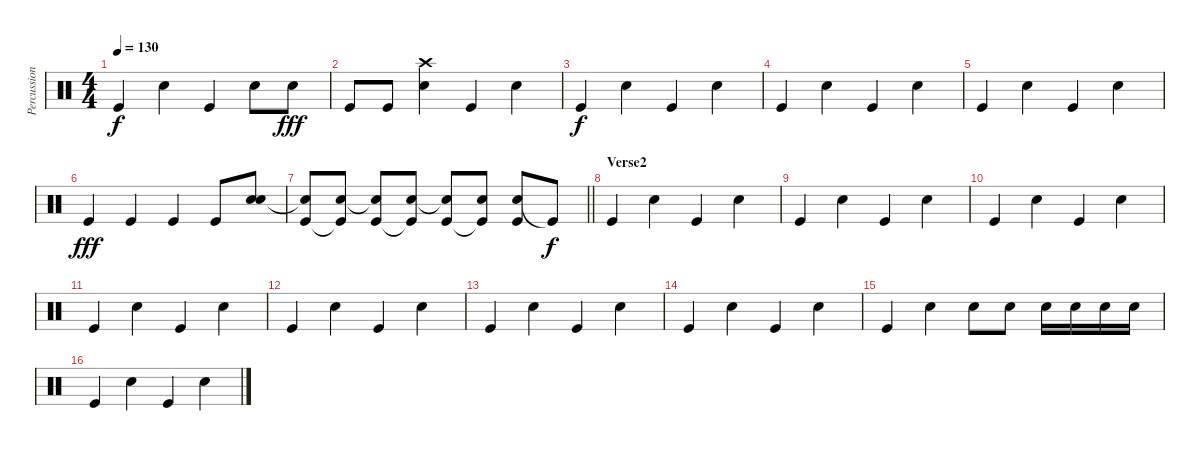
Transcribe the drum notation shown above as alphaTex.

\track ("Percussion" "Percussion") {instrument percussion}
\staff {score}
\articulation defaults
\ts (4 4)
\tempo 130
\clef neutral
\ks c "Kick (hit)".4{dy f} "Snare (hit) 2".4 "Kick (hit)".4 "Snare (hit) 2".8 "Snare (hit) 2".8{dy fff}
|
"Kick (hit)".8 "Kick (hit)".8 ("Crash high (hit)" "Snare (hit) 2").4 "Kick (hit)".4 "Snare (hit) 2".4 |
"Kick (hit)".4{dy f} "Snare (hit) 2".4 "Kick (hit)".4 "Snare (hit) 2".4 |
"Kick (hit)".4 "Snare (hit) 2".4 "Kick (hit)".4 "Snare (hit) 2".4 |
"Kick (hit)".4 "Snare (hit) 2".4 "Kick (hit)".4 "Snare (hit) 2".4 |
"Kick (hit)".4{dy fff} "Kick (hit)".4 "Kick (hit)".4 "Kick (hit)".8 ("Electric Snare (hit)" "Snare (hit)").8 |
\barLineRight lightlight
("Electric Snare (hit)"{t} "Kick (hit)").8 ("Electric Snare (hit)" "Kick (hit)"{t}).8 ("Electric Snare (hit)"{t} "Kick (hit)").8 ("Electric Snare (hit)" "Kick (hit)"{t}).8 ("Electric Snare (hit)"{t} "Kick (hit)").8 ("Electric Snare (hit)" "Kick (hit)"{t}).8 ("Electric Snare (hit)" "Kick (hit)").8 "Kick (hit)"{t}.8{dy f} |
\section ("" "Verse2")
"Kick (hit)".4 "Snare (hit) 2".4 "Kick (hit)".4 "Snare (hit) 2".4 |
"Kick (hit)".4 "Snare (hit) 2".4 "Kick (hit)".4 "Snare (hit) 2".4 |
"Kick (hit)".4 "Snare (hit) 2".4 "Kick (hit)".4 "Snare (hit) 2".4 |
"Kick (hit)".4 "Snare (hit) 2".4 "Kick (hit)".4 "Snare (hit) 2".4 |
"Kick (hit)".4 "Snare (hit) 2".4 "Kick (hit)".4 "Snare (hit) 2".4 |
"Kick (hit)".4 "Snare (hit) 2".4 "Kick (hit)".4 "Snare (hit) 2".4 |
"Kick (hit)".4 "Snare (hit) 2".4 "Kick (hit)".4 "Snare (hit) 2".4 |
"Kick (hit)".4 "Snare (hit) 2".4 "Snare (hit) 2".8 "Snare (hit) 2".8 "Snare (hit) 2".16 "Snare (hit) 2".16 "Snare (hit) 2".16 "Snare (hit) 2".16 |
"Kick (hit)".4 "Snare (hit) 2".4 "Kick (hit)".4 "Snare (hit) 2".4
